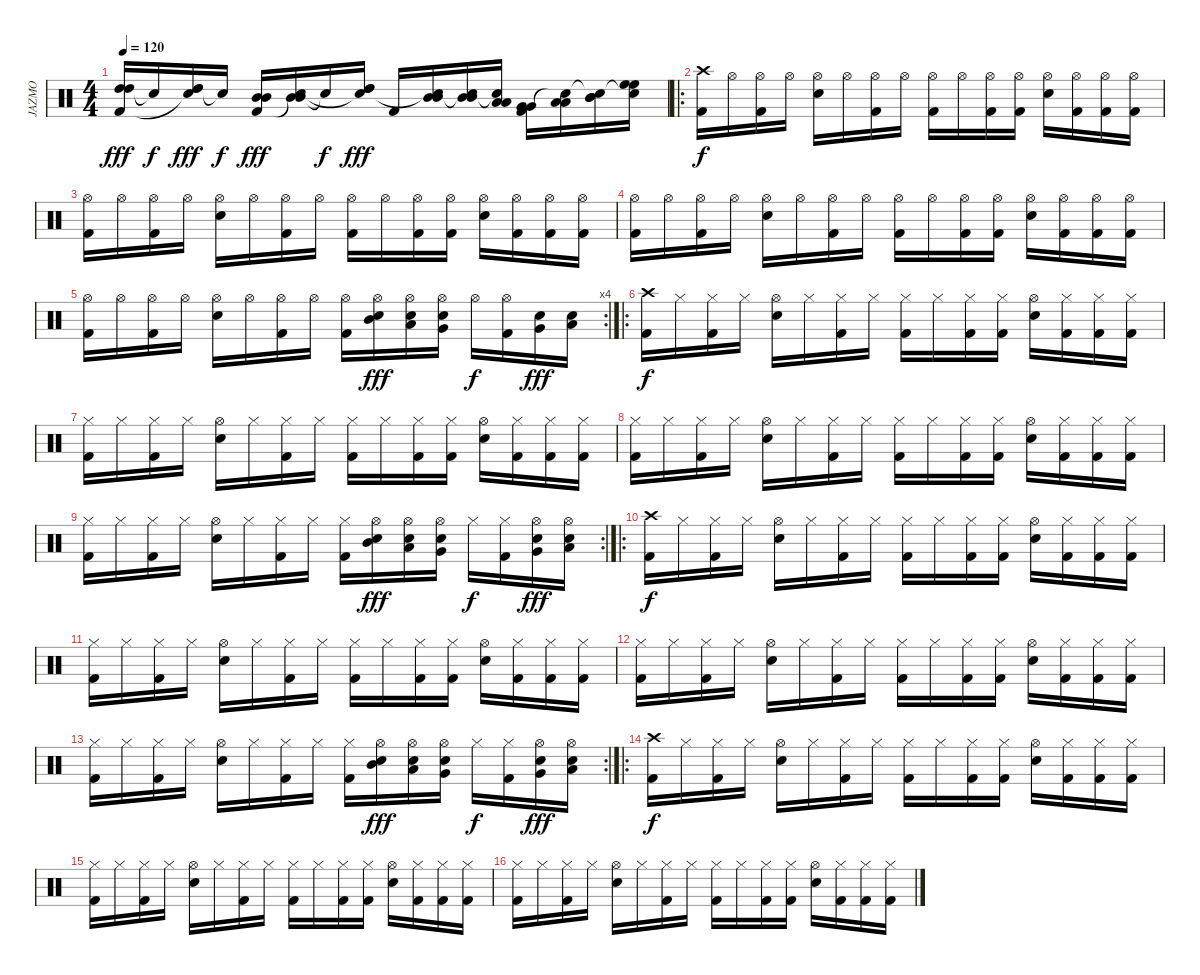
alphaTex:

\track ("JAZMO" "JAZMO") {instrument percussion}
\staff {score}
\articulation defaults
\ts (4 4)
\tempo 120
\clef neutral
\ks c
("High Tom (hit)" "High Tom (hit)" "Kick (hit) 2").16{dy fff} "Snare (hit)"{t}.16{dy f} ("High Tom (hit)" "High Tom (hit)" "Snare (hit)"{t}).16{dy fff} "Snare (hit)"{t}.16{dy f} ("Mid Tom (hit)" "Mid Tom (hit)" "Kick (hit) 2").16{dy fff} ("Mid Tom (hit)" "Mid Tom (hit)" "Snare (hit)"{t}).16 "Snare (hit)"{t}.16{dy f} ("High Tom (hit)" "High Tom (hit)" "Snare (hit)"{t}).16{dy fff} "Kick (hit) 2".16 ("Mid Tom (hit)" "Mid Tom (hit)" "Snare (hit)"{t}).16 ("Mid Tom (hit)" "Mid Tom (hit)" "Snare (hit)"{t}).16 ("Low Tom (hit)" "Low Tom (hit)" "Snare (hit)"{t}).16 ("Very Low Tom (hit)" "Very Low Tom (hit)" "Kick (hit) 2").16 ("Low Tom (hit)" "Low Tom (hit)" "Snare (hit)"{t}).16 ("Mid Tom (hit)" "Mid Tom (hit)" "Snare (hit)"{t}).16 ("High Floor Tom (hit)" "High Floor Tom (hit)" "Snare (hit)"{t}).16 |
\ro
("Crash high (hit)" "Kick (hit) 2").16{dy f} "Hi-Hat (open)".16 ("Hi-Hat (open)" "Kick (hit) 2").16 "Hi-Hat (open)".16 ("Hi-Hat (open)" "Electric Snare (hit)").16 "Hi-Hat (open)".16 ("Hi-Hat (open)" "Kick (hit) 2").16 "Hi-Hat (open)".16 ("Hi-Hat (open)" "Kick (hit) 2").16 "Hi-Hat (open)".16 ("Hi-Hat (open)" "Kick (hit) 2").16 ("Hi-Hat (open)" "Kick (hit) 2").16 ("Hi-Hat (open)" "Electric Snare (hit)").16 ("Hi-Hat (open)" "Kick (hit) 2").16 ("Hi-Hat (open)" "Kick (hit) 2").16 ("Hi-Hat (open)" "Kick (hit) 2").16 |
("Hi-Hat (open)" "Kick (hit) 2").16 "Hi-Hat (open)".16 ("Hi-Hat (open)" "Kick (hit) 2").16 "Hi-Hat (open)".16 ("Hi-Hat (open)" "Electric Snare (hit)").16 "Hi-Hat (open)".16 ("Hi-Hat (open)" "Kick (hit) 2").16 "Hi-Hat (open)".16 ("Hi-Hat (open)" "Kick (hit) 2").16 "Hi-Hat (open)".16 ("Hi-Hat (open)" "Kick (hit) 2").16 ("Hi-Hat (open)" "Kick (hit) 2").16 ("Hi-Hat (open)" "Electric Snare (hit)").16 ("Hi-Hat (open)" "Kick (hit) 2").16 ("Hi-Hat (open)" "Kick (hit) 2").16 ("Hi-Hat (open)" "Kick (hit) 2").16 |
("Hi-Hat (open)" "Kick (hit) 2").16 "Hi-Hat (open)".16 ("Hi-Hat (open)" "Kick (hit) 2").16 "Hi-Hat (open)".16 ("Hi-Hat (open)" "Electric Snare (hit)").16 "Hi-Hat (open)".16 ("Hi-Hat (open)" "Kick (hit) 2").16 "Hi-Hat (open)".16 ("Hi-Hat (open)" "Kick (hit) 2").16 "Hi-Hat (open)".16 ("Hi-Hat (open)" "Kick (hit) 2").16 ("Hi-Hat (open)" "Kick (hit) 2").16 ("Hi-Hat (open)" "Electric Snare (hit)").16 ("Hi-Hat (open)" "Kick (hit) 2").16 ("Hi-Hat (open)" "Kick (hit) 2").16 ("Hi-Hat (open)" "Kick (hit) 2").16 |
\rc 4
("Hi-Hat (open)" "Kick (hit) 2").16 "Hi-Hat (open)".16 ("Hi-Hat (open)" "Kick (hit) 2").16 "Hi-Hat (open)".16 ("Hi-Hat (open)" "Electric Snare (hit)").16 "Hi-Hat (open)".16 ("Hi-Hat (open)" "Kick (hit) 2").16 "Hi-Hat (open)".16 ("Hi-Hat (open)" "Kick (hit) 2").16 ("Hi-Hat (open)" "Mid Tom (hit)" "Electric Snare (hit)").16{dy fff} ("Hi-Hat (open)" "Low Tom (hit)" "Electric Snare (hit)").16 ("Hi-Hat (open)" "Very Low Tom (hit)" "Electric Snare (hit)").16 "Hi-Hat (open)".16{dy f} ("Hi-Hat (open)" "Kick (hit) 2").16 ("Very Low Tom (hit)" "Electric Snare (hit)").16{dy fff} ("Low Floor Tom (hit)" "Electric Snare (hit)").16 |
\ro
("Crash high (hit)" "Kick (hit) 2").16{dy f} "Hi-Hat (closed)".16 ("Hi-Hat (closed)" "Kick (hit) 2").16 "Hi-Hat (closed)".16 ("Hi-Hat (open)" "Electric Snare (hit)").16 "Hi-Hat (closed)".16 ("Hi-Hat (closed)" "Kick (hit) 2").16 "Hi-Hat (closed)".16 ("Hi-Hat (closed)" "Kick (hit) 2").16 "Hi-Hat (closed)".16 ("Hi-Hat (closed)" "Kick (hit) 2").16 ("Hi-Hat (closed)" "Kick (hit) 2").16 ("Hi-Hat (open)" "Electric Snare (hit)").16 ("Hi-Hat (closed)" "Kick (hit) 2").16 ("Hi-Hat (closed)" "Kick (hit) 2").16 ("Hi-Hat (closed)" "Kick (hit) 2").16 |
("Hi-Hat (closed)" "Kick (hit) 2").16 "Hi-Hat (closed)".16 ("Hi-Hat (closed)" "Kick (hit) 2").16 "Hi-Hat (closed)".16 ("Hi-Hat (open)" "Electric Snare (hit)").16 "Hi-Hat (closed)".16 ("Hi-Hat (closed)" "Kick (hit) 2").16 "Hi-Hat (closed)".16 ("Hi-Hat (closed)" "Kick (hit) 2").16 "Hi-Hat (closed)".16 ("Hi-Hat (closed)" "Kick (hit) 2").16 ("Hi-Hat (closed)" "Kick (hit) 2").16 ("Hi-Hat (open)" "Electric Snare (hit)").16 ("Hi-Hat (closed)" "Kick (hit) 2").16 ("Hi-Hat (closed)" "Kick (hit) 2").16 ("Hi-Hat (closed)" "Kick (hit) 2").16 |
("Hi-Hat (closed)" "Kick (hit) 2").16 "Hi-Hat (closed)".16 ("Hi-Hat (closed)" "Kick (hit) 2").16 "Hi-Hat (closed)".16 ("Hi-Hat (open)" "Electric Snare (hit)").16 "Hi-Hat (closed)".16 ("Hi-Hat (closed)" "Kick (hit) 2").16 "Hi-Hat (closed)".16 ("Hi-Hat (closed)" "Kick (hit) 2").16 "Hi-Hat (closed)".16 ("Hi-Hat (closed)" "Kick (hit) 2").16 ("Hi-Hat (closed)" "Kick (hit) 2").16 ("Hi-Hat (open)" "Electric Snare (hit)").16 ("Hi-Hat (closed)" "Kick (hit) 2").16 ("Hi-Hat (closed)" "Kick (hit) 2").16 ("Hi-Hat (closed)" "Kick (hit) 2").16 |
\rc 2
("Hi-Hat (closed)" "Kick (hit) 2").16 "Hi-Hat (closed)".16 ("Hi-Hat (closed)" "Kick (hit) 2").16 "Hi-Hat (closed)".16 ("Hi-Hat (open)" "Electric Snare (hit)").16 "Hi-Hat (closed)".16 ("Hi-Hat (closed)" "Kick (hit) 2").16 "Hi-Hat (closed)".16 ("Hi-Hat (closed)" "Kick (hit) 2").16 ("Hi-Hat (open)" "Mid Tom (hit)" "Electric Snare (hit)").16{dy fff} ("Hi-Hat (open)" "Low Tom (hit)" "Electric Snare (hit)").16 ("Hi-Hat (open)" "Very Low Tom (hit)" "Electric Snare (hit)").16 "Hi-Hat (closed)".16{dy f} ("Hi-Hat (closed)" "Kick (hit) 2").16 ("Hi-Hat (open)" "Very Low Tom (hit)" "Electric Snare (hit)").16{dy fff} ("Hi-Hat (open)" "Low Floor Tom (hit)" "Electric Snare (hit)").16 |
\ro
("Crash high (hit)" "Kick (hit) 2").16{dy f} "Hi-Hat (closed)".16 ("Hi-Hat (closed)" "Kick (hit) 2").16 "Hi-Hat (closed)".16 ("Hi-Hat (open)" "Electric Snare (hit)").16 "Hi-Hat (closed)".16 ("Hi-Hat (closed)" "Kick (hit) 2").16 "Hi-Hat (closed)".16 ("Hi-Hat (closed)" "Kick (hit) 2").16 "Hi-Hat (closed)".16 ("Hi-Hat (closed)" "Kick (hit) 2").16 ("Hi-Hat (closed)" "Kick (hit) 2").16 ("Hi-Hat (open)" "Electric Snare (hit)").16 ("Hi-Hat (closed)" "Kick (hit) 2").16 ("Hi-Hat (closed)" "Kick (hit) 2").16 ("Hi-Hat (closed)" "Kick (hit) 2").16 |
("Hi-Hat (closed)" "Kick (hit) 2").16 "Hi-Hat (closed)".16 ("Hi-Hat (closed)" "Kick (hit) 2").16 "Hi-Hat (closed)".16 ("Hi-Hat (open)" "Electric Snare (hit)").16 "Hi-Hat (closed)".16 ("Hi-Hat (closed)" "Kick (hit) 2").16 "Hi-Hat (closed)".16 ("Hi-Hat (closed)" "Kick (hit) 2").16 "Hi-Hat (closed)".16 ("Hi-Hat (closed)" "Kick (hit) 2").16 ("Hi-Hat (closed)" "Kick (hit) 2").16 ("Hi-Hat (open)" "Electric Snare (hit)").16 ("Hi-Hat (closed)" "Kick (hit) 2").16 ("Hi-Hat (closed)" "Kick (hit) 2").16 ("Hi-Hat (closed)" "Kick (hit) 2").16 |
("Hi-Hat (closed)" "Kick (hit) 2").16 "Hi-Hat (closed)".16 ("Hi-Hat (closed)" "Kick (hit) 2").16 "Hi-Hat (closed)".16 ("Hi-Hat (open)" "Electric Snare (hit)").16 "Hi-Hat (closed)".16 ("Hi-Hat (closed)" "Kick (hit) 2").16 "Hi-Hat (closed)".16 ("Hi-Hat (closed)" "Kick (hit) 2").16 "Hi-Hat (closed)".16 ("Hi-Hat (closed)" "Kick (hit) 2").16 ("Hi-Hat (closed)" "Kick (hit) 2").16 ("Hi-Hat (open)" "Electric Snare (hit)").16 ("Hi-Hat (closed)" "Kick (hit) 2").16 ("Hi-Hat (closed)" "Kick (hit) 2").16 ("Hi-Hat (closed)" "Kick (hit) 2").16 |
\rc 2
("Hi-Hat (closed)" "Kick (hit) 2").16 "Hi-Hat (closed)".16 ("Hi-Hat (closed)" "Kick (hit) 2").16 "Hi-Hat (closed)".16 ("Hi-Hat (open)" "Electric Snare (hit)").16 "Hi-Hat (closed)".16 ("Hi-Hat (closed)" "Kick (hit) 2").16 "Hi-Hat (closed)".16 ("Hi-Hat (closed)" "Kick (hit) 2").16 ("Hi-Hat (open)" "Mid Tom (hit)" "Electric Snare (hit)").16{dy fff} ("Hi-Hat (open)" "Low Tom (hit)" "Electric Snare (hit)").16 ("Hi-Hat (open)" "Very Low Tom (hit)" "Electric Snare (hit)").16 "Hi-Hat (closed)".16{dy f} ("Hi-Hat (closed)" "Kick (hit) 2").16 ("Hi-Hat (open)" "Very Low Tom (hit)" "Electric Snare (hit)").16{dy fff} ("Hi-Hat (open)" "Low Floor Tom (hit)" "Electric Snare (hit)").16 |
\ro
("Crash high (hit)" "Kick (hit) 2").16{dy f} "Hi-Hat (closed)".16 ("Hi-Hat (closed)" "Kick (hit) 2").16 "Hi-Hat (closed)".16 ("Hi-Hat (open)" "Electric Snare (hit)").16 "Hi-Hat (closed)".16 ("Hi-Hat (closed)" "Kick (hit) 2").16 "Hi-Hat (closed)".16 ("Hi-Hat (closed)" "Kick (hit) 2").16 "Hi-Hat (closed)".16 ("Hi-Hat (closed)" "Kick (hit) 2").16 ("Hi-Hat (closed)" "Kick (hit) 2").16 ("Hi-Hat (open)" "Electric Snare (hit)").16 ("Hi-Hat (closed)" "Kick (hit) 2").16 ("Hi-Hat (closed)" "Kick (hit) 2").16 ("Hi-Hat (closed)" "Kick (hit) 2").16 |
("Hi-Hat (closed)" "Kick (hit) 2").16 "Hi-Hat (closed)".16 ("Hi-Hat (closed)" "Kick (hit) 2").16 "Hi-Hat (closed)".16 ("Hi-Hat (open)" "Electric Snare (hit)").16 "Hi-Hat (closed)".16 ("Hi-Hat (closed)" "Kick (hit) 2").16 "Hi-Hat (closed)".16 ("Hi-Hat (closed)" "Kick (hit) 2").16 "Hi-Hat (closed)".16 ("Hi-Hat (closed)" "Kick (hit) 2").16 ("Hi-Hat (closed)" "Kick (hit) 2").16 ("Hi-Hat (open)" "Electric Snare (hit)").16 ("Hi-Hat (closed)" "Kick (hit) 2").16 ("Hi-Hat (closed)" "Kick (hit) 2").16 ("Hi-Hat (closed)" "Kick (hit) 2").16 |
("Hi-Hat (closed)" "Kick (hit) 2").16 "Hi-Hat (closed)".16 ("Hi-Hat (closed)" "Kick (hit) 2").16 "Hi-Hat (closed)".16 ("Hi-Hat (open)" "Electric Snare (hit)").16 "Hi-Hat (closed)".16 ("Hi-Hat (closed)" "Kick (hit) 2").16 "Hi-Hat (closed)".16 ("Hi-Hat (closed)" "Kick (hit) 2").16 "Hi-Hat (closed)".16 ("Hi-Hat (closed)" "Kick (hit) 2").16 ("Hi-Hat (closed)" "Kick (hit) 2").16 ("Hi-Hat (open)" "Electric Snare (hit)").16 ("Hi-Hat (closed)" "Kick (hit) 2").16 ("Hi-Hat (closed)" "Kick (hit) 2").16 ("Hi-Hat (closed)" "Kick (hit) 2").16
